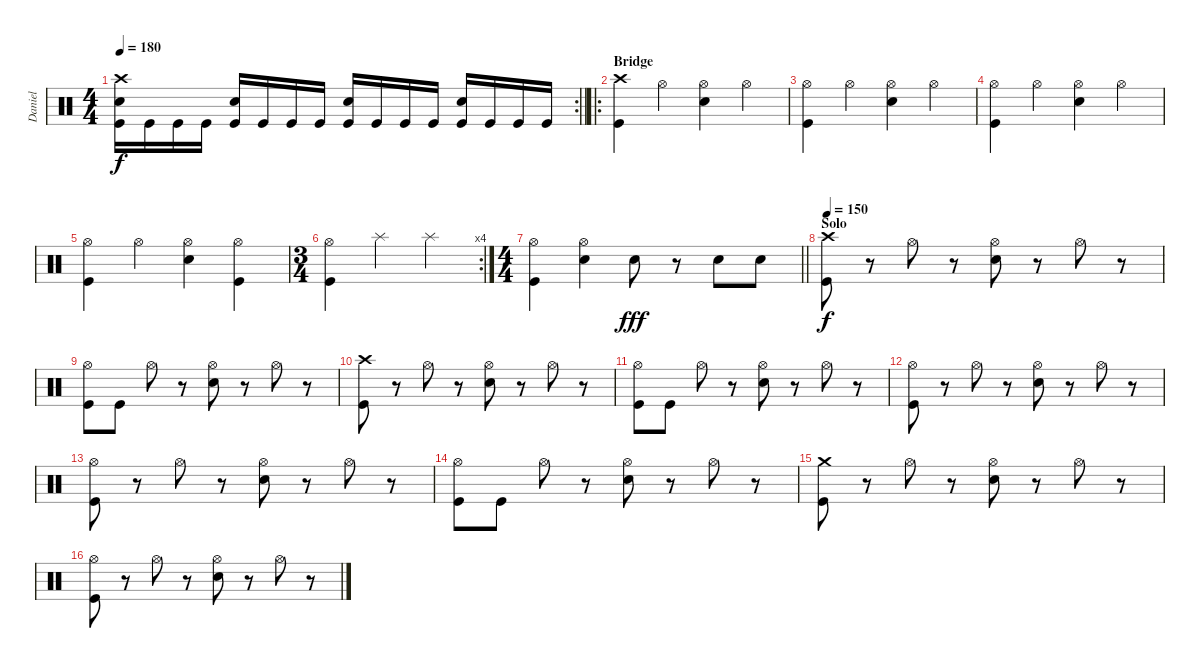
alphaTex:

\track ("Daniel" "Daniel") {instrument percussion}
\staff {score}
\articulation defaults
\rc 2
\ts (4 4)
\tempo 180
\clef neutral
\barLineRight lightlight
\ks c
("Crash high (hit)" "Snare (hit) 2" "Kick (hit)").16{dy f} "Kick (hit)".16 "Kick (hit)".16 "Kick (hit)".16 ("Snare (hit) 2" "Kick (hit)").16 "Kick (hit)".16 "Kick (hit)".16 "Kick (hit)".16 ("Snare (hit) 2" "Kick (hit)").16 "Kick (hit)".16 "Kick (hit)".16 "Kick (hit)".16 ("Snare (hit) 2" "Kick (hit)").16 "Kick (hit)".16 "Kick (hit)".16 "Kick (hit)".16 |
\ro
\section ("" "Bridge")
("Crash high (hit)" "Kick (hit)").4 "Hi-Hat (open)".4 ("Hi-Hat (open)" "Snare (hit) 2").4 "Hi-Hat (open)".4 |
("Hi-Hat (open)" "Kick (hit)").4 "Hi-Hat (open)".4 ("Hi-Hat (open)" "Snare (hit) 2").4 "Hi-Hat (open)".4 |
("Hi-Hat (open)" "Kick (hit)").4 "Hi-Hat (open)".4 ("Hi-Hat (open)" "Snare (hit) 2").4 "Hi-Hat (open)".4 |
("Hi-Hat (open)" "Kick (hit)").4 "Hi-Hat (open)".4 ("Hi-Hat (open)" "Snare (hit) 2").4 ("Hi-Hat (open)" "Kick (hit)").4 |
\rc 4
\ts (3 4)
("Hi-Hat (open)" "Kick (hit)").4 "Splash (hit)".4 "Splash (hit)".4 |
\ts (4 4)
\barLineRight lightlight
("Hi-Hat (open)" "Kick (hit)").4 ("Hi-Hat (open)" "Snare (hit) 2").4 "Snare (hit) 2".8{dy fff} r.8 "Snare (hit) 2".8 "Snare (hit) 2".8 |
\section ("" "Solo")
\tempo 150
("Crash high (hit)" "Kick (hit)").8{dy f} r.8 "Hi-Hat (open)".8 r.8 ("Hi-Hat (open)" "Snare (hit) 2").8 r.8 "Hi-Hat (open)".8 r.8 |
("Hi-Hat (open)" "Kick (hit)").8 "Kick (hit)".8 "Hi-Hat (open)".8 r.8 ("Hi-Hat (open)" "Snare (hit) 2").8 r.8 "Hi-Hat (open)".8 r.8 |
("Crash high (hit)" "Kick (hit)").8 r.8 "Hi-Hat (open)".8 r.8 ("Hi-Hat (open)" "Snare (hit) 2").8 r.8 "Hi-Hat (open)".8 r.8 |
("Hi-Hat (open)" "Kick (hit)").8 "Kick (hit)".8 "Hi-Hat (open)".8 r.8 ("Hi-Hat (open)" "Snare (hit) 2").8 r.8 "Hi-Hat (open)".8 r.8 |
("Hi-Hat (open)" "Kick (hit)").8 r.8 "Hi-Hat (open)".8 r.8 ("Hi-Hat (open)" "Snare (hit) 2").8 r.8 "Hi-Hat (open)".8 r.8 |
("Hi-Hat (open)" "Kick (hit)").8 r.8 "Hi-Hat (open)".8 r.8 ("Hi-Hat (open)" "Snare (hit) 2").8 r.8 "Hi-Hat (open)".8 r.8 |
("Hi-Hat (open)" "Kick (hit)").8 "Kick (hit)".8 "Hi-Hat (open)".8 r.8 ("Hi-Hat (open)" "Snare (hit) 2").8 r.8 "Hi-Hat (open)".8 r.8 |
("Crash medium (hit)" "Kick (hit)").8 r.8 "Hi-Hat (open)".8 r.8 ("Hi-Hat (open)" "Snare (hit) 2").8 r.8 "Hi-Hat (open)".8 r.8 |
("Hi-Hat (open)" "Kick (hit)").8 r.8 "Hi-Hat (open)".8 r.8 ("Hi-Hat (open)" "Snare (hit) 2").8 r.8 "Hi-Hat (open)".8 r.8
